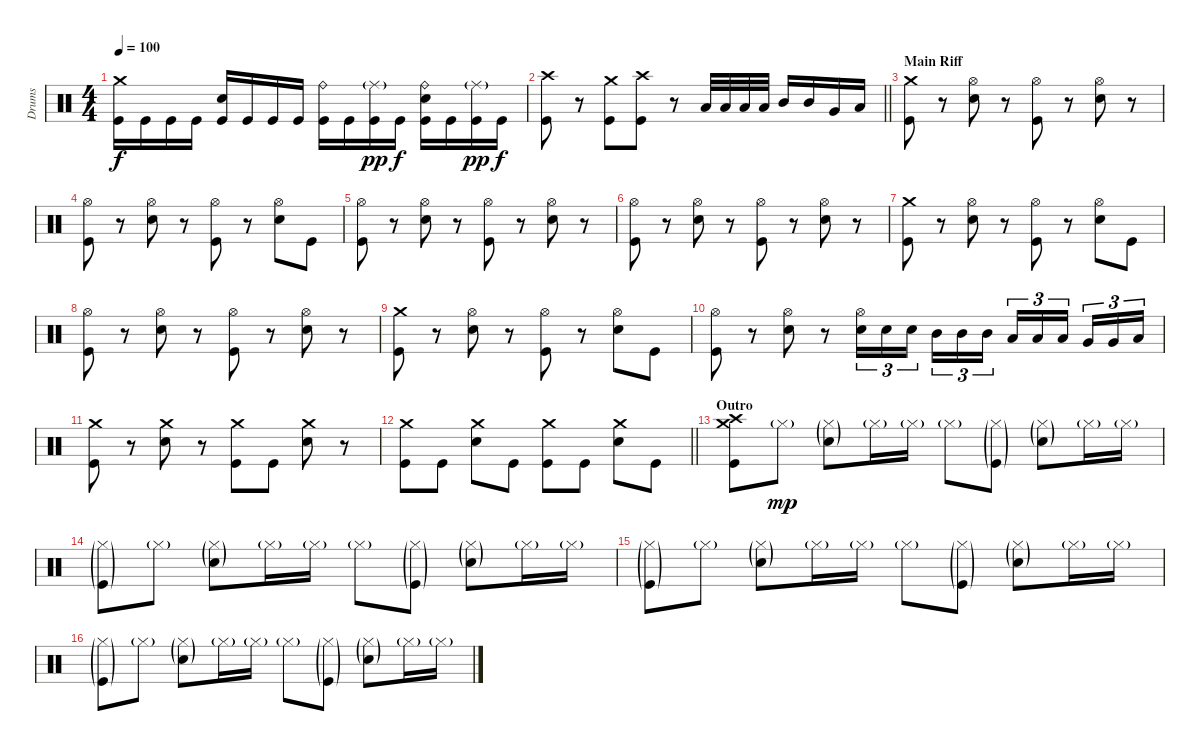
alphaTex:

\track ("Drums" "Drums") {instrument percussion}
\staff {score}
\articulation defaults
\ts (4 4)
\tempo 100
\clef neutral
\ks c
("Crash medium (hit)" "Kick (hit)").16{dy f} "Kick (hit)".16 "Kick (hit)".16 "Kick (hit)".16 ("Electric Snare (hit)" "Kick (hit)").16 "Kick (hit)".16 "Kick (hit)".16 "Kick (hit)".16 ("Ride (bell)" "Kick (hit)").16 "Kick (hit)".16 ("Ride (middle)"{g} "Kick (hit)").16{dy pp} "Kick (hit)".16{dy f} ("Ride (bell)" "Electric Snare (hit)" "Kick (hit)").16 "Kick (hit)".16 ("Ride (middle)"{g} "Kick (hit)").16{dy pp} "Kick (hit)".16{dy f} |
\barLineRight lightlight
("Crash high (hit)" "Kick (hit)").8 r.8 ("Crash medium (hit)" "Kick (hit)").8 ("Crash high (hit)" "Kick (hit)").8 r.8 "Low Tom (hit)".32 "Low Tom (hit)".32 "Low Tom (hit)".32 "Low Tom (hit)".32 "Mid Tom (hit)".16 "Mid Tom (hit)".16 "Very Low Tom (hit)".16 "Low Floor Tom (hit)".16 |
\section ("" "Main Riff")
("Crash medium (hit)" "Kick (hit)").8 r.8 ("Hi-Hat (open)" "Electric Snare (hit)").8 r.8 ("Hi-Hat (open)" "Kick (hit)").8 r.8 ("Hi-Hat (open)" "Electric Snare (hit)").8 r.8 |
("Hi-Hat (open)" "Kick (hit)").8 r.8 ("Hi-Hat (open)" "Electric Snare (hit)").8 r.8 ("Hi-Hat (open)" "Kick (hit)").8 r.8 ("Hi-Hat (open)" "Electric Snare (hit)").8 "Kick (hit)".8 |
("Hi-Hat (open)" "Kick (hit)").8 r.8 ("Hi-Hat (open)" "Electric Snare (hit)").8 r.8 ("Hi-Hat (open)" "Kick (hit)").8 r.8 ("Hi-Hat (open)" "Electric Snare (hit)").8 r.8 |
("Hi-Hat (open)" "Kick (hit)").8 r.8 ("Hi-Hat (open)" "Electric Snare (hit)").8 r.8 ("Hi-Hat (open)" "Kick (hit)").8 r.8 ("Hi-Hat (open)" "Electric Snare (hit)").8 r.8 |
("Crash medium (hit)" "Kick (hit)").8 r.8 ("Hi-Hat (open)" "Electric Snare (hit)").8 r.8 ("Hi-Hat (open)" "Kick (hit)").8 r.8 ("Hi-Hat (open)" "Electric Snare (hit)").8 "Kick (hit)".8 |
("Hi-Hat (open)" "Kick (hit)").8 r.8 ("Hi-Hat (open)" "Electric Snare (hit)").8 r.8 ("Hi-Hat (open)" "Kick (hit)").8 r.8 ("Hi-Hat (open)" "Electric Snare (hit)").8 r.8 |
("Crash medium (hit)" "Kick (hit)").8 r.8 ("Hi-Hat (open)" "Electric Snare (hit)").8 r.8 ("Hi-Hat (open)" "Kick (hit)").8 r.8 ("Hi-Hat (open)" "Electric Snare (hit)").8 "Kick (hit)".8 |
("Hi-Hat (open)" "Kick (hit)").8 r.8 ("Hi-Hat (open)" "Electric Snare (hit)").8 r.8 ("Hi-Hat (open)" "Electric Snare (hit)").16{tu (3 2)} "Electric Snare (hit)".16{tu (3 2)} "Electric Snare (hit)".16{tu (3 2) beam splitsecondary} "Mid Tom (hit)".16{tu (3 2)} "Mid Tom (hit)".16{tu (3 2)} "Mid Tom (hit)".16{tu (3 2)} "Low Tom (hit)".16{tu (3 2)} "Low Tom (hit)".16{tu (3 2)} "Low Tom (hit)".16{tu (3 2) beam splitsecondary} "Very Low Tom (hit)".16{tu (3 2)} "Very Low Tom (hit)".16{tu (3 2)} "Low Floor Tom (hit)".16{tu (3 2)} |
("Crash medium (hit)" "Kick (hit)").8 r.8 ("Crash medium (hit)" "Electric Snare (hit)").8 r.8 ("Crash medium (hit)" "Kick (hit)").8 "Kick (hit)".8 ("Crash medium (hit)" "Electric Snare (hit)").8 r.8 |
\barLineRight lightlight
("Crash medium (hit)" "Kick (hit)").8 "Kick (hit)".8 ("Crash medium (hit)" "Electric Snare (hit)").8 "Kick (hit)".8 ("Crash medium (hit)" "Kick (hit)").8 "Kick (hit)".8 ("Crash medium (hit)" "Electric Snare (hit)").8 "Kick (hit)".8 |
\section ("" "Outro")
("Crash medium (hit)" "Crash high (hit)" "Kick (hit)").8 "Hi-Hat (closed)"{g}.8{dy mp} ("Hi-Hat (closed)"{g} "Electric Snare (hit)"{g}).8 "Hi-Hat (closed)"{g}.16 "Hi-Hat (closed)"{g}.16 "Hi-Hat (closed)"{g}.8 ("Hi-Hat (closed)"{g} "Kick (hit)"{g}).8 ("Hi-Hat (closed)"{g} "Electric Snare (hit)"{g}).8 "Hi-Hat (closed)"{g}.16 "Hi-Hat (closed)"{g}.16 |
("Hi-Hat (closed)"{g} "Kick (hit)"{g}).8 "Hi-Hat (closed)"{g}.8 ("Hi-Hat (closed)"{g} "Electric Snare (hit)"{g}).8 "Hi-Hat (closed)"{g}.16 "Hi-Hat (closed)"{g}.16 "Hi-Hat (closed)"{g}.8 ("Hi-Hat (closed)"{g} "Kick (hit)"{g}).8 ("Hi-Hat (closed)"{g} "Electric Snare (hit)"{g}).8 "Hi-Hat (closed)"{g}.16 "Hi-Hat (closed)"{g}.16 |
("Hi-Hat (closed)"{g} "Kick (hit)"{g}).8 "Hi-Hat (closed)"{g}.8 ("Hi-Hat (closed)"{g} "Electric Snare (hit)"{g}).8 "Hi-Hat (closed)"{g}.16 "Hi-Hat (closed)"{g}.16 "Hi-Hat (closed)"{g}.8 ("Hi-Hat (closed)"{g} "Kick (hit)"{g}).8 ("Hi-Hat (closed)"{g} "Electric Snare (hit)"{g}).8 "Hi-Hat (closed)"{g}.16 "Hi-Hat (closed)"{g}.16 |
("Hi-Hat (closed)"{g} "Kick (hit)"{g}).8 "Hi-Hat (closed)"{g}.8 ("Hi-Hat (closed)"{g} "Electric Snare (hit)"{g}).8 "Hi-Hat (closed)"{g}.16 "Hi-Hat (closed)"{g}.16 "Hi-Hat (closed)"{g}.8 ("Hi-Hat (closed)"{g} "Kick (hit)"{g}).8 ("Hi-Hat (closed)"{g} "Electric Snare (hit)"{g}).8 "Hi-Hat (closed)"{g}.16 "Hi-Hat (closed)"{g}.16
